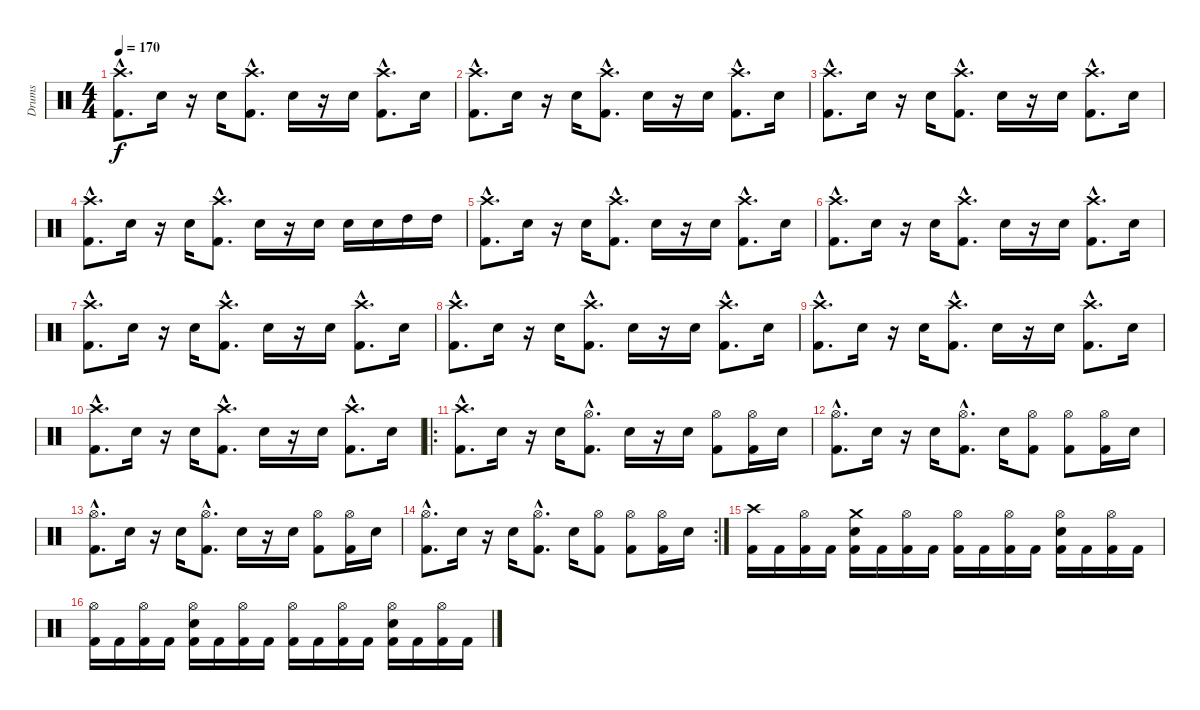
\track ("Drums" "Drums") {instrument percussion}
\staff {score}
\articulation defaults
\ts (4 4)
\tempo 170
\clef neutral
\ks c
("Crash high (hit)"{hac} "Kick (hit) 2"{hac}).8{d dy f} "Electric Snare (hit)".16 r.16 "Electric Snare (hit)".16 ("Crash high (hit)"{hac} "Kick (hit) 2"{hac}).8{d} "Electric Snare (hit)".16 r.16 "Electric Snare (hit)".16 ("Crash high (hit)"{hac} "Kick (hit) 2"{hac}).8{d} "Electric Snare (hit)".16 |
("Crash high (hit)"{hac} "Kick (hit) 2"{hac}).8{d} "Electric Snare (hit)".16 r.16 "Electric Snare (hit)".16 ("Crash high (hit)"{hac} "Kick (hit) 2"{hac}).8{d} "Electric Snare (hit)".16 r.16 "Electric Snare (hit)".16 ("Crash high (hit)"{hac} "Kick (hit) 2"{hac}).8{d} "Electric Snare (hit)".16 |
("Crash high (hit)"{hac} "Kick (hit) 2"{hac}).8{d} "Electric Snare (hit)".16 r.16 "Electric Snare (hit)".16 ("Crash high (hit)"{hac} "Kick (hit) 2"{hac}).8{d} "Electric Snare (hit)".16 r.16 "Electric Snare (hit)".16 ("Crash high (hit)"{hac} "Kick (hit) 2"{hac}).8{d} "Electric Snare (hit)".16 |
("Crash high (hit)"{hac} "Kick (hit) 2"{hac}).8{d} "Electric Snare (hit)".16 r.16 "Electric Snare (hit)".16 ("Crash high (hit)"{hac} "Kick (hit) 2"{hac}).8{d} "Electric Snare (hit)".16 r.16 "Electric Snare (hit)".16 "Electric Snare (hit)".16 "Electric Snare (hit)".16 "High Tom (hit)".16 "High Tom (hit)".16 |
("Crash high (hit)"{hac} "Kick (hit) 2"{hac}).8{d} "Electric Snare (hit)".16 r.16 "Electric Snare (hit)".16 ("Crash high (hit)"{hac} "Kick (hit) 2"{hac}).8{d} "Electric Snare (hit)".16 r.16 "Electric Snare (hit)".16 ("Crash high (hit)"{hac} "Kick (hit) 2"{hac}).8{d} "Electric Snare (hit)".16 |
("Crash high (hit)"{hac} "Kick (hit) 2"{hac}).8{d} "Electric Snare (hit)".16 r.16 "Electric Snare (hit)".16 ("Crash high (hit)"{hac} "Kick (hit) 2"{hac}).8{d} "Electric Snare (hit)".16 r.16 "Electric Snare (hit)".16 ("Crash high (hit)"{hac} "Kick (hit) 2"{hac}).8{d} "Electric Snare (hit)".16 |
("Crash high (hit)"{hac} "Kick (hit) 2"{hac}).8{d} "Electric Snare (hit)".16 r.16 "Electric Snare (hit)".16 ("Crash high (hit)"{hac} "Kick (hit) 2"{hac}).8{d} "Electric Snare (hit)".16 r.16 "Electric Snare (hit)".16 ("Crash high (hit)"{hac} "Kick (hit) 2"{hac}).8{d} "Electric Snare (hit)".16 |
("Crash high (hit)"{hac} "Kick (hit) 2"{hac}).8{d} "Electric Snare (hit)".16 r.16 "Electric Snare (hit)".16 ("Crash high (hit)"{hac} "Kick (hit) 2"{hac}).8{d} "Electric Snare (hit)".16 r.16 "Electric Snare (hit)".16 ("Crash high (hit)"{hac} "Kick (hit) 2"{hac}).8{d} "Electric Snare (hit)".16 |
("Crash high (hit)"{hac} "Kick (hit) 2"{hac}).8{d} "Electric Snare (hit)".16 r.16 "Electric Snare (hit)".16 ("Crash high (hit)"{hac} "Kick (hit) 2"{hac}).8{d} "Electric Snare (hit)".16 r.16 "Electric Snare (hit)".16 ("Crash high (hit)"{hac} "Kick (hit) 2"{hac}).8{d} "Electric Snare (hit)".16 |
("Crash high (hit)"{hac} "Kick (hit) 2"{hac}).8{d} "Electric Snare (hit)".16 r.16 "Electric Snare (hit)".16 ("Crash high (hit)"{hac} "Kick (hit) 2"{hac}).8{d} "Electric Snare (hit)".16 r.16 "Electric Snare (hit)".16 ("Crash high (hit)"{hac} "Kick (hit) 2"{hac}).8{d} "Electric Snare (hit)".16 |
\ro
("Crash high (hit)"{hac} "Kick (hit) 2"{hac}).8{d} "Electric Snare (hit)".16 r.16 "Electric Snare (hit)".16 ("Hi-Hat (open)"{hac} "Kick (hit) 2"{hac}).8{d} "Electric Snare (hit)".16 r.16 "Electric Snare (hit)".16 ("Hi-Hat (open)" "Kick (hit) 2").8 ("Hi-Hat (open)" "Kick (hit) 2").16 "Electric Snare (hit)".16 |
("Hi-Hat (open)"{hac} "Kick (hit) 2"{hac}).8{d} "Electric Snare (hit)".16 r.16 "Electric Snare (hit)".16 ("Hi-Hat (open)"{hac} "Kick (hit) 2"{hac}).8{d} "Electric Snare (hit)".16 ("Hi-Hat (open)" "Kick (hit) 2").8 ("Hi-Hat (open)" "Kick (hit) 2").8 ("Hi-Hat (open)" "Kick (hit) 2").16 "Electric Snare (hit)".16 |
("Hi-Hat (open)"{hac} "Kick (hit) 2"{hac}).8{d} "Electric Snare (hit)".16 r.16 "Electric Snare (hit)".16 ("Hi-Hat (open)"{hac} "Kick (hit) 2"{hac}).8{d} "Electric Snare (hit)".16 r.16 "Electric Snare (hit)".16 ("Hi-Hat (open)" "Kick (hit) 2").8 ("Hi-Hat (open)" "Kick (hit) 2").16 "Electric Snare (hit)".16 |
\rc 2
("Hi-Hat (open)"{hac} "Kick (hit) 2"{hac}).8{d} "Electric Snare (hit)".16 r.16 "Electric Snare (hit)".16 ("Hi-Hat (open)"{hac} "Kick (hit) 2"{hac}).8{d} "Electric Snare (hit)".16 ("Hi-Hat (open)" "Kick (hit) 2").8 ("Hi-Hat (open)" "Kick (hit) 2").8 ("Hi-Hat (open)" "Kick (hit) 2").16 "Electric Snare (hit)".16 |
("Crash high (hit)" "Kick (hit) 2").16 "Kick (hit) 2".16 ("Hi-Hat (open)" "Kick (hit) 2").16 "Kick (hit) 2".16 ("Crash medium (hit)" "Electric Snare (hit)" "Kick (hit) 2").16 "Kick (hit) 2".16 ("Hi-Hat (open)" "Kick (hit) 2").16 "Kick (hit) 2".16 ("Hi-Hat (open)" "Kick (hit) 2").16 "Kick (hit) 2".16 ("Hi-Hat (open)" "Kick (hit) 2").16 "Kick (hit) 2".16 ("Hi-Hat (open)" "Electric Snare (hit)" "Kick (hit) 2").16 "Kick (hit) 2".16 ("Hi-Hat (open)" "Kick (hit) 2").16 "Kick (hit) 2".16 |
("Hi-Hat (open)" "Kick (hit) 2").16 "Kick (hit) 2".16 ("Hi-Hat (open)" "Kick (hit) 2").16 "Kick (hit) 2".16 ("Hi-Hat (open)" "Electric Snare (hit)" "Kick (hit) 2").16 "Kick (hit) 2".16 ("Hi-Hat (open)" "Kick (hit) 2").16 "Kick (hit) 2".16 ("Hi-Hat (open)" "Kick (hit) 2").16 "Kick (hit) 2".16 ("Hi-Hat (open)" "Kick (hit) 2").16 "Kick (hit) 2".16 ("Hi-Hat (open)" "Electric Snare (hit)" "Kick (hit) 2").16 "Kick (hit) 2".16 ("Hi-Hat (open)" "Kick (hit) 2").16 "Kick (hit) 2".16
